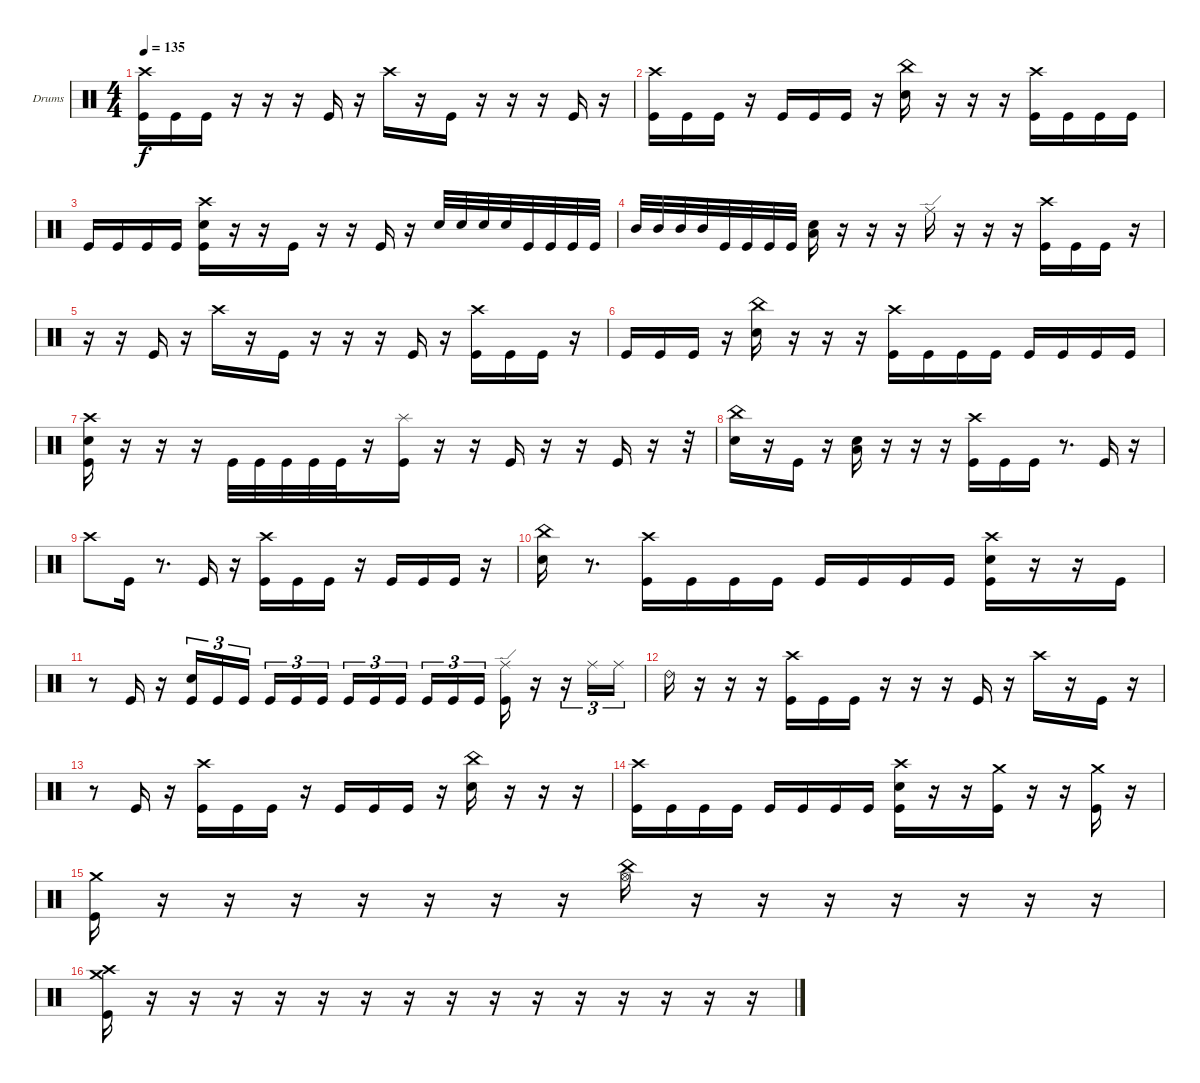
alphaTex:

\bracketExtendMode groupsimilarinstruments
\firstSystemTrackNameOrientation horizontal
\otherSystemsTrackNameOrientation horizontal
\track ("Drumkit" "Drums") {instrument percussion}
\staff {score}
\articulation defaults
\ts (4 4)
\tempo 135
\clef neutral
\ks c
("Crash high (hit)" "Kick (hit)").16{dy f} "Kick (hit)".16 "Kick (hit)".16 r.16 r.16 r.16 "Kick (hit)".16 r.16 "Crash high (hit)".16 r.16 "Kick (hit)".16 r.16 r.16 r.16 "Kick (hit)".16 r.16 |
("Crash high (hit)" "Kick (hit)").16 "Kick (hit)".16 "Kick (hit)".16 r.16 "Kick (hit)".16 "Kick (hit)".16 "Kick (hit)".16 r.16 ("China (hit)" "Snare (hit) 2").16 r.16 r.16 r.16 ("Crash high (hit)" "Kick (hit)").16 "Kick (hit)".16 "Kick (hit)".16 "Kick (hit)".16 |
"Kick (hit)".16 "Kick (hit)".16 "Kick (hit)".16 "Kick (hit)".16 ("Crash high (hit)" "Snare (hit) 2" "Kick (hit)").16 r.16 r.16 "Kick (hit)".16 r.16 r.16 "Kick (hit)".16 r.16 "Snare (hit) 2".32 "Snare (hit) 2".32 "Snare (hit) 2".32 "Snare (hit) 2".32 "Kick (hit)".32 "Kick (hit)".32 "Kick (hit)".32 "Kick (hit)".32 |
"Mid Tom (hit)".32 "Mid Tom (hit)".32 "Mid Tom (hit)".32 "Mid Tom (hit)".32 "Kick (hit)".32 "Kick (hit)".32 "Kick (hit)".32 "Kick (hit)".32 ("Low Tom (hit)" "Snare (hit) 2").16 r.16 r.16 r.16 "Ride (edge)".16 r.16 r.16 r.16 ("Crash high (hit)" "Kick (hit)").16 "Kick (hit)".16 "Kick (hit)".16 r.16 |
r.16 r.16 "Kick (hit)".16 r.16 "Crash high (hit)".16 r.16 "Kick (hit)".16 r.16 r.16 r.16 "Kick (hit)".16 r.16 ("Crash high (hit)" "Kick (hit)").16 "Kick (hit)".16 "Kick (hit)".16 r.16 |
"Kick (hit)".16 "Kick (hit)".16 "Kick (hit)".16 r.16 ("China (hit)" "Snare (hit) 2").16 r.16 r.16 r.16 ("Crash high (hit)" "Kick (hit)").16 "Kick (hit)".16 "Kick (hit)".16 "Kick (hit)".16 "Kick (hit)".16 "Kick (hit)".16 "Kick (hit)".16 "Kick (hit)".16 |
("Crash high (hit)" "Snare (hit) 2" "Kick (hit)").16 r.16 r.16 r.16 "Kick (hit)".32 "Kick (hit)".32 "Kick (hit)".32 "Kick (hit)".32 "Kick (hit)".32 r.16 ("Splash (hit)" "Kick (hit)").16 r.16 r.16 "Kick (hit)".16 r.16 r.16 "Kick (hit)".16 r.16 r.32 |
("China (hit)" "Snare (hit) 2").16 r.16 "Kick (hit)".16 r.16 ("Low Tom (hit)" "Snare (hit) 2").16 r.16 r.16 r.16 ("Crash high (hit)" "Kick (hit)").16 "Kick (hit)".16 "Kick (hit)".16 r.8{d} "Kick (hit)".16 r.16 |
"Crash high (hit)".8 "Kick (hit)".16 r.8{d} "Kick (hit)".16 r.16 ("Crash high (hit)" "Kick (hit)").16 "Kick (hit)".16 "Kick (hit)".16 r.16 "Kick (hit)".16 "Kick (hit)".16 "Kick (hit)".16 r.16 |
("China (hit)" "Snare (hit) 2").16 r.8{d} ("Crash high (hit)" "Kick (hit)").16 "Kick (hit)".16 "Kick (hit)".16 "Kick (hit)".16 "Kick (hit)".16 "Kick (hit)".16 "Kick (hit)".16 "Kick (hit)".16 ("Crash high (hit)" "Snare (hit) 2" "Kick (hit)").16 r.16 r.16 "Kick (hit)".16 |
r.8 "Kick (hit)".16 r.16 ("Snare (hit) 2" "Kick (hit)").16{tu (3 2)} "Kick (hit)".16{tu (3 2)} "Kick (hit)".16{tu (3 2)} "Kick (hit)".16{tu (3 2)} "Kick (hit)".16{tu (3 2)} "Kick (hit)".16{tu (3 2)} "Kick (hit)".16{tu (3 2)} "Kick (hit)".16{tu (3 2)} "Kick (hit)".16{tu (3 2)} "Kick (hit)".16{tu (3 2)} "Kick (hit)".16{tu (3 2)} "Kick (hit)".16{tu (3 2)} ("Ride (edge)" "Kick (hit)").16 r.16 r.16{tu (3 2)} "Ride (middle)".16{tu (3 2)} "Ride (middle)".16{tu (3 2)} |
"Ride (bell) 2".16 r.16 r.16 r.16 ("Crash high (hit)" "Kick (hit)").16 "Kick (hit)".16 "Kick (hit)".16 r.16 r.16 r.16 "Kick (hit)".16 r.16 "Crash high (hit)".16 r.16 "Kick (hit)".16 r.16 |
r.8 "Kick (hit)".16 r.16 ("Crash high (hit)" "Kick (hit)").16 "Kick (hit)".16 "Kick (hit)".16 r.16 "Kick (hit)".16 "Kick (hit)".16 "Kick (hit)".16 r.16 ("China (hit)" "Snare (hit) 2").16 r.16 r.16 r.16 |
("Crash high (hit)" "Kick (hit)").16 "Kick (hit)".16 "Kick (hit)".16 "Kick (hit)".16 "Kick (hit)".16 "Kick (hit)".16 "Kick (hit)".16 "Kick (hit)".16 ("Crash high (hit)" "Snare (hit) 2" "Kick (hit)").16 r.16 r.16 ("Crash medium (hit)" "Kick (hit)").16 r.16 r.16 ("Crash medium (hit)" "Kick (hit)").16 r.16 |
("Crash medium (hit)" "Kick (hit)").16 r.16 r.16 r.16 r.16 r.16 r.16 r.16 ("Hi-Hat (open)" "China (hit)").16 r.16 r.16 r.16 r.16 r.16 r.16 r.16 |
("Crash medium (hit)" "Crash high (hit)" "Kick (hit)").16 r.16 r.16 r.16 r.16 r.16 r.16 r.16 r.16 r.16 r.16 r.16 r.16 r.16 r.16 r.16
